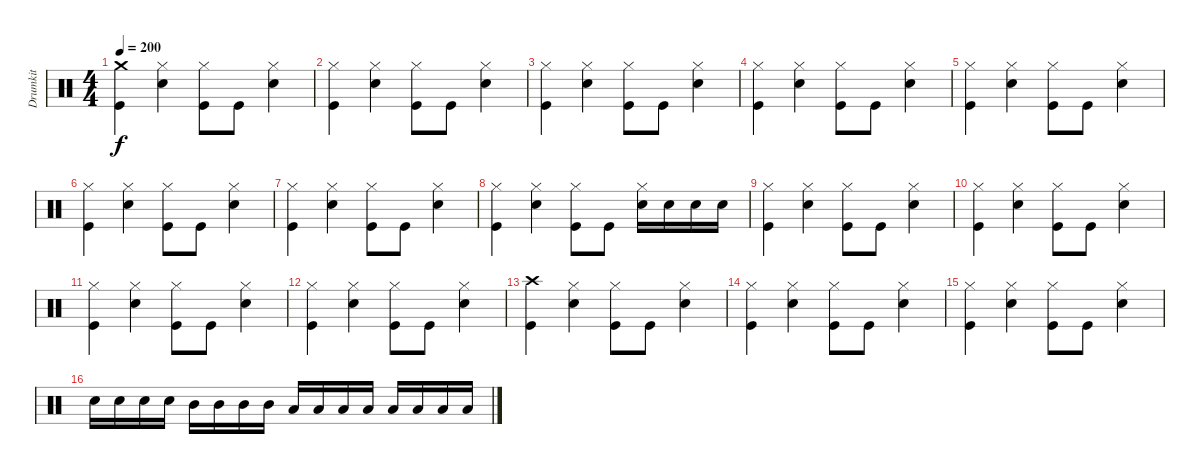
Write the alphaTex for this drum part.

\track ("Drumkit" "Drumkit") {instrument percussion}
\staff {score}
\articulation defaults
\ts (4 4)
\tempo 200
\clef neutral
\ks c
("Crash medium (hit)" "Kick (hit)").4{dy f} ("Hi-Hat (closed)" "Snare (hit) 2").4 ("Hi-Hat (closed)" "Kick (hit)").8 "Kick (hit)".8 ("Hi-Hat (closed)" "Snare (hit) 2").4 |
("Hi-Hat (closed)" "Kick (hit)").4 ("Hi-Hat (closed)" "Snare (hit) 2").4 ("Hi-Hat (closed)" "Kick (hit)").8 "Kick (hit)".8 ("Hi-Hat (closed)" "Snare (hit) 2").4 |
("Hi-Hat (closed)" "Kick (hit)").4 ("Hi-Hat (closed)" "Snare (hit) 2").4 ("Hi-Hat (closed)" "Kick (hit)").8 "Kick (hit)".8 ("Hi-Hat (closed)" "Snare (hit) 2").4 |
("Hi-Hat (closed)" "Kick (hit)").4 ("Hi-Hat (closed)" "Snare (hit) 2").4 ("Hi-Hat (closed)" "Kick (hit)").8 "Kick (hit)".8 ("Hi-Hat (closed)" "Snare (hit) 2").4 |
("Hi-Hat (closed)" "Kick (hit)").4 ("Hi-Hat (closed)" "Snare (hit) 2").4 ("Hi-Hat (closed)" "Kick (hit)").8 "Kick (hit)".8 ("Hi-Hat (closed)" "Snare (hit) 2").4 |
("Hi-Hat (closed)" "Kick (hit)").4 ("Hi-Hat (closed)" "Snare (hit) 2").4 ("Hi-Hat (closed)" "Kick (hit)").8 "Kick (hit)".8 ("Hi-Hat (closed)" "Snare (hit) 2").4 |
("Hi-Hat (closed)" "Kick (hit)").4 ("Hi-Hat (closed)" "Snare (hit) 2").4 ("Hi-Hat (closed)" "Kick (hit)").8 "Kick (hit)".8 ("Hi-Hat (closed)" "Snare (hit) 2").4 |
("Hi-Hat (closed)" "Kick (hit)").4 ("Hi-Hat (closed)" "Snare (hit) 2").4 ("Hi-Hat (closed)" "Kick (hit)").8 "Kick (hit)".8 ("Hi-Hat (closed)" "Snare (hit) 2").16 "Snare (hit) 2".16 "Snare (hit) 2".16 "Snare (hit) 2".16 |
("Hi-Hat (closed)" "Kick (hit)").4 ("Hi-Hat (closed)" "Snare (hit) 2").4 ("Hi-Hat (closed)" "Kick (hit)").8 "Kick (hit)".8 ("Hi-Hat (closed)" "Snare (hit) 2").4 |
("Hi-Hat (closed)" "Kick (hit)").4 ("Hi-Hat (closed)" "Snare (hit) 2").4 ("Hi-Hat (closed)" "Kick (hit)").8 "Kick (hit)".8 ("Hi-Hat (closed)" "Snare (hit) 2").4 |
("Hi-Hat (closed)" "Kick (hit)").4 ("Hi-Hat (closed)" "Snare (hit) 2").4 ("Hi-Hat (closed)" "Kick (hit)").8 "Kick (hit)".8 ("Hi-Hat (closed)" "Snare (hit) 2").4 |
("Hi-Hat (closed)" "Kick (hit)").4 ("Hi-Hat (closed)" "Snare (hit) 2").4 ("Hi-Hat (closed)" "Kick (hit)").8 "Kick (hit)".8 ("Hi-Hat (closed)" "Snare (hit) 2").4 |
("Crash high (hit)" "Kick (hit)").4 ("Hi-Hat (closed)" "Snare (hit) 2").4 ("Hi-Hat (closed)" "Kick (hit)").8 "Kick (hit)".8 ("Hi-Hat (closed)" "Snare (hit) 2").4 |
("Hi-Hat (closed)" "Kick (hit)").4 ("Hi-Hat (closed)" "Snare (hit) 2").4 ("Hi-Hat (closed)" "Kick (hit)").8 "Kick (hit)".8 ("Hi-Hat (closed)" "Snare (hit) 2").4 |
("Hi-Hat (closed)" "Kick (hit)").4 ("Hi-Hat (closed)" "Snare (hit) 2").4 ("Hi-Hat (closed)" "Kick (hit)").8 "Kick (hit)".8 ("Hi-Hat (closed)" "Snare (hit) 2").4 |
"Snare (hit) 2".16 "Snare (hit) 2".16 "Snare (hit) 2".16 "Snare (hit) 2".16 "Mid Tom (hit)".16 "Mid Tom (hit)".16 "Mid Tom (hit)".16 "Mid Tom (hit)".16 "Low Tom (hit)".16 "Low Tom (hit)".16 "Low Tom (hit)".16 "Low Tom (hit)".16 "Low Floor Tom (hit)".16 "Low Floor Tom (hit)".16 "Low Floor Tom (hit)".16 "Low Floor Tom (hit)".16
